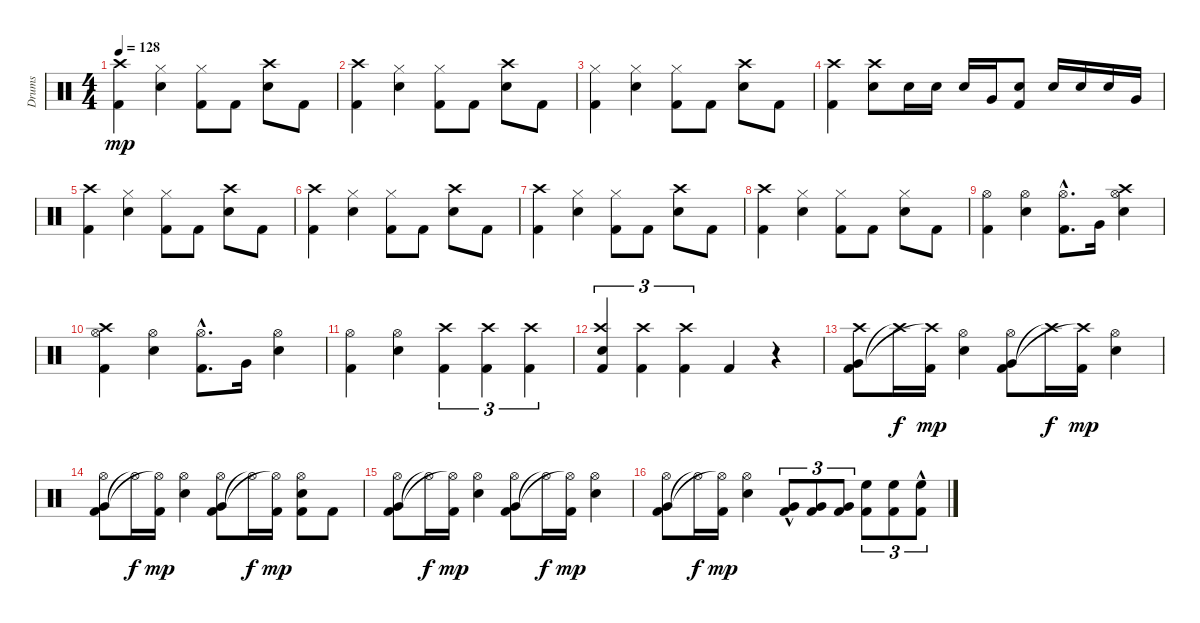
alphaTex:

\track ("Drums" "Drums") {instrument percussion}
\staff {score}
\articulation defaults
\ts (4 4)
\tempo 128
\clef neutral
\ks c
("Kick (hit) 2" "Crash high (hit)").4{dy mp} ("Electric Snare (hit)" "Hi-Hat (closed)").4 ("Kick (hit) 2" "Hi-Hat (closed)").8 "Kick (hit) 2".8 ("Electric Snare (hit)" "Crash high (hit)").8 "Kick (hit) 2".8 |
("Kick (hit) 2" "Crash high (hit)").4 ("Electric Snare (hit)" "Hi-Hat (closed)").4 ("Kick (hit) 2" "Hi-Hat (closed)").8 "Kick (hit) 2".8 ("Electric Snare (hit)" "Crash high (hit)").8 "Kick (hit) 2".8 |
("Kick (hit) 2" "Hi-Hat (closed)").4 ("Electric Snare (hit)" "Hi-Hat (closed)").4 ("Kick (hit) 2" "Hi-Hat (closed)").8 "Kick (hit) 2".8 ("Electric Snare (hit)" "Crash high (hit)").8 "Kick (hit) 2".8 |
("Kick (hit) 2" "Crash high (hit)").4 ("Electric Snare (hit)" "Crash high (hit)").8 "Electric Snare (hit)".16 "Electric Snare (hit)".16 "Electric Snare (hit)".16 "Very Low Tom (hit)".16 ("Kick (hit) 2" "Electric Snare (hit)").8 "Electric Snare (hit)".16 "Electric Snare (hit)".16 "Electric Snare (hit)".16 "Very Low Tom (hit)".16 |
("Kick (hit) 2" "Crash high (hit)").4 ("Electric Snare (hit)" "Hi-Hat (closed)").4 ("Kick (hit) 2" "Hi-Hat (closed)").8 "Kick (hit) 2".8 ("Electric Snare (hit)" "Crash high (hit)").8 "Kick (hit) 2".8 |
("Kick (hit) 2" "Crash high (hit)").4 ("Electric Snare (hit)" "Hi-Hat (closed)").4 ("Kick (hit) 2" "Hi-Hat (closed)").8 "Kick (hit) 2".8 ("Electric Snare (hit)" "Crash high (hit)").8 "Kick (hit) 2".8 |
("Kick (hit) 2" "Crash high (hit)").4 ("Electric Snare (hit)" "Hi-Hat (closed)").4 ("Kick (hit) 2" "Hi-Hat (closed)").8 "Kick (hit) 2".8 ("Electric Snare (hit)" "Crash high (hit)").8 "Kick (hit) 2".8 |
("Kick (hit) 2" "Crash high (hit)").4 ("Electric Snare (hit)" "Hi-Hat (closed)").4 ("Kick (hit) 2" "Hi-Hat (closed)").8 "Kick (hit) 2".8 ("Electric Snare (hit)" "Hi-Hat (closed)").8 "Kick (hit) 2".8 |
("Kick (hit) 2" "Hi-Hat (open)").4 ("Electric Snare (hit)" "Hi-Hat (open)").4 ("Kick (hit) 2"{hac} "Hi-Hat (open)").8{d} "Very Low Tom (hit)".16 ("Electric Snare (hit)" "Hi-Hat (open)" "Crash high (hit)").4 |
("Kick (hit) 2" "Hi-Hat (open)" "Crash high (hit)").4 ("Electric Snare (hit)" "Hi-Hat (open)").4 ("Kick (hit) 2"{hac} "Hi-Hat (open)").8{d} "Very Low Tom (hit)".16 ("Electric Snare (hit)" "Hi-Hat (open)").4 |
("Kick (hit) 2" "Hi-Hat (open)").4 ("Electric Snare (hit)" "Hi-Hat (open)").4 ("Kick (hit) 2" "Crash high (hit)").4{tu (3 2)} ("Kick (hit) 2" "Crash high (hit)").4{tu (3 2)} ("Kick (hit) 2" "Crash high (hit)").4{tu (3 2)} |
("Kick (hit) 2" "Electric Snare (hit)" "Crash high (hit)").4{tu (3 2)} ("Kick (hit) 2" "Crash high (hit)").4{tu (3 2)} ("Kick (hit) 2" "Crash high (hit)").4{tu (3 2)} "Kick (hit) 2".4 r.4 |
("Kick (hit) 2" "Very Low Tom (hit)" "Crash high (hit)").8 "Crash high (hit)"{t}.16{dy f} ("Kick (hit) 2" "Crash high (hit)"{t}).16{dy mp} ("Electric Snare (hit)" "Hi-Hat (open)").4 ("Kick (hit) 2" "Very Low Tom (hit)" "Hi-Hat (open)").8 "Crash high (hit)"{t}.16{dy f} ("Kick (hit) 2" "Crash high (hit)"{t}).16{dy mp} ("Electric Snare (hit)" "Hi-Hat (open)").4 |
("Kick (hit) 2" "Very Low Tom (hit)" "Hi-Hat (open)").8 "Hi-Hat (open)"{t}.16{dy f} ("Kick (hit) 2" "Hi-Hat (open)"{t}).16{dy mp} ("Electric Snare (hit)" "Hi-Hat (open)").4 ("Kick (hit) 2" "Very Low Tom (hit)" "Hi-Hat (open)").8 "Hi-Hat (open)"{t}.16{dy f} ("Kick (hit) 2" "Hi-Hat (open)"{t}).16{dy mp} ("Kick (hit) 2" "Electric Snare (hit)" "Hi-Hat (open)").8 "Kick (hit) 2".8 |
("Kick (hit) 2" "Very Low Tom (hit)" "Hi-Hat (open)").8 "Hi-Hat (open)"{t}.16{dy f} ("Kick (hit) 2" "Hi-Hat (open)"{t}).16{dy mp} ("Electric Snare (hit)" "Hi-Hat (open)").4 ("Kick (hit) 2" "Very Low Tom (hit)" "Hi-Hat (open)").8 "Hi-Hat (open)"{t}.16{dy f} ("Kick (hit) 2" "Hi-Hat (open)"{t}).16{dy mp} ("Electric Snare (hit)" "Hi-Hat (open)").4 |
("Kick (hit) 2" "Very Low Tom (hit)" "Hi-Hat (open)").8 "Hi-Hat (open)"{t}.16{dy f} ("Kick (hit) 2" "Hi-Hat (open)"{t}).16{dy mp} ("Electric Snare (hit)" "Hi-Hat (open)").4 ("Kick (hit) 2"{hac} "Very Low Tom (hit)"{hac}).8{tu (3 2)} ("Kick (hit) 2" "Very Low Tom (hit)").8{tu (3 2)} ("Kick (hit) 2" "Very Low Tom (hit)").8{tu (3 2)} ("Kick (hit) 2" "High Floor Tom (hit)").8{tu (3 2)} ("Kick (hit) 2" "High Floor Tom (hit)").8{tu (3 2)} ("Kick (hit) 2"{hac} "High Floor Tom (hit)"{hac}).8{tu (3 2)}
